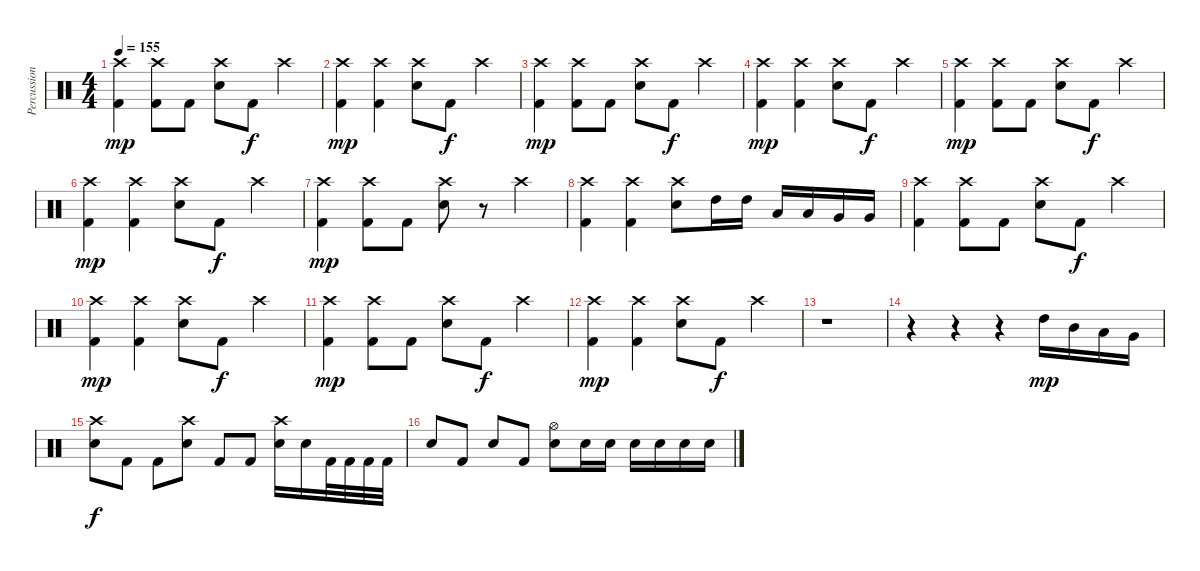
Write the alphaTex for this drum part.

\track ("Percussion" "Percussion") {instrument percussion}
\staff {score}
\articulation defaults
\ts (4 4)
\tempo 155
\clef neutral
\ks c
("Crash high (hit)" "Kick (hit) 2").4{dy mp} ("Crash high (hit)" "Kick (hit) 2").8 "Kick (hit) 2".8 ("Crash high (hit)" "Snare (hit) 2").8 "Kick (hit) 2".8{dy f} "Crash high (hit)".4 |
("Crash high (hit)" "Kick (hit) 2").4{dy mp} ("Crash high (hit)" "Kick (hit) 2").4 ("Crash high (hit)" "Snare (hit) 2").8 "Kick (hit) 2".8{dy f} "Crash high (hit)".4 |
("Crash high (hit)" "Kick (hit) 2").4{dy mp} ("Crash high (hit)" "Kick (hit) 2").8 "Kick (hit) 2".8 ("Crash high (hit)" "Snare (hit) 2").8 "Kick (hit) 2".8{dy f} "Crash high (hit)".4 |
("Crash high (hit)" "Kick (hit) 2").4{dy mp} ("Crash high (hit)" "Kick (hit) 2").4 ("Crash high (hit)" "Snare (hit) 2").8 "Kick (hit) 2".8{dy f} "Crash high (hit)".4 |
("Crash high (hit)" "Kick (hit) 2").4{dy mp} ("Crash high (hit)" "Kick (hit) 2").8 "Kick (hit) 2".8 ("Crash high (hit)" "Snare (hit) 2").8 "Kick (hit) 2".8{dy f} "Crash high (hit)".4 |
("Crash high (hit)" "Kick (hit) 2").4{dy mp} ("Crash high (hit)" "Kick (hit) 2").4 ("Crash high (hit)" "Snare (hit) 2").8 "Kick (hit) 2".8{dy f} "Crash high (hit)".4 |
("Crash high (hit)" "Kick (hit) 2").4{dy mp} ("Crash high (hit)" "Kick (hit) 2").8 "Kick (hit) 2".8 ("Crash high (hit)" "Snare (hit) 2").8 r.8 "Crash high (hit)".4 |
("Crash high (hit)" "Kick (hit) 2").4 ("Crash high (hit)" "Kick (hit) 2").4 ("Crash high (hit)" "Snare (hit) 2").8 "High Tom (hit)".16 "High Tom (hit)".16 "Low Tom (hit)".16 "Low Tom (hit)".16 "Very Low Tom (hit)".16 "Very Low Tom (hit)".16 |
("Crash high (hit)" "Kick (hit) 2").4 ("Crash high (hit)" "Kick (hit) 2").8 "Kick (hit) 2".8 ("Crash high (hit)" "Snare (hit) 2").8 "Kick (hit) 2".8{dy f} "Crash high (hit)".4 |
("Crash high (hit)" "Kick (hit) 2").4{dy mp} ("Crash high (hit)" "Kick (hit) 2").4 ("Crash high (hit)" "Snare (hit) 2").8 "Kick (hit) 2".8{dy f} "Crash high (hit)".4 |
("Crash high (hit)" "Kick (hit) 2").4{dy mp} ("Crash high (hit)" "Kick (hit) 2").8 "Kick (hit) 2".8 ("Crash high (hit)" "Snare (hit) 2").8 "Kick (hit) 2".8{dy f} "Crash high (hit)".4 |
("Crash high (hit)" "Kick (hit) 2").4{dy mp} ("Crash high (hit)" "Kick (hit) 2").4 ("Crash high (hit)" "Snare (hit) 2").8 "Kick (hit) 2".8{dy f} "Crash high (hit)".4 |
r.1 |
r.4 r.4 r.4 "High Tom (hit)".16{dy mp} "Mid Tom (hit)".16 "Low Tom (hit)".16 "Very Low Tom (hit)".16 |
("Crash high (hit)" "Snare (hit) 2").8{dy f} "Kick (hit) 2".8 "Kick (hit) 2".8 ("Crash high (hit)" "Snare (hit) 2").8 "Kick (hit) 2".8 "Kick (hit) 2".8 ("Crash high (hit)" "Snare (hit) 2").16 "Snare (hit) 2".16 "Kick (hit) 2".32 "Kick (hit) 2".32 "Kick (hit) 2".32 "Kick (hit) 2".32 |
"Snare (hit) 2".8 "Kick (hit) 2".8 "Snare (hit) 2".8 "Kick (hit) 2".8 ("Hi-Hat (open)" "Snare (hit) 2").8 "Snare (hit) 2".16 "Snare (hit) 2".16 "Snare (hit) 2".16 "Snare (hit) 2".16 "Snare (hit) 2".16 "Snare (hit) 2".16
